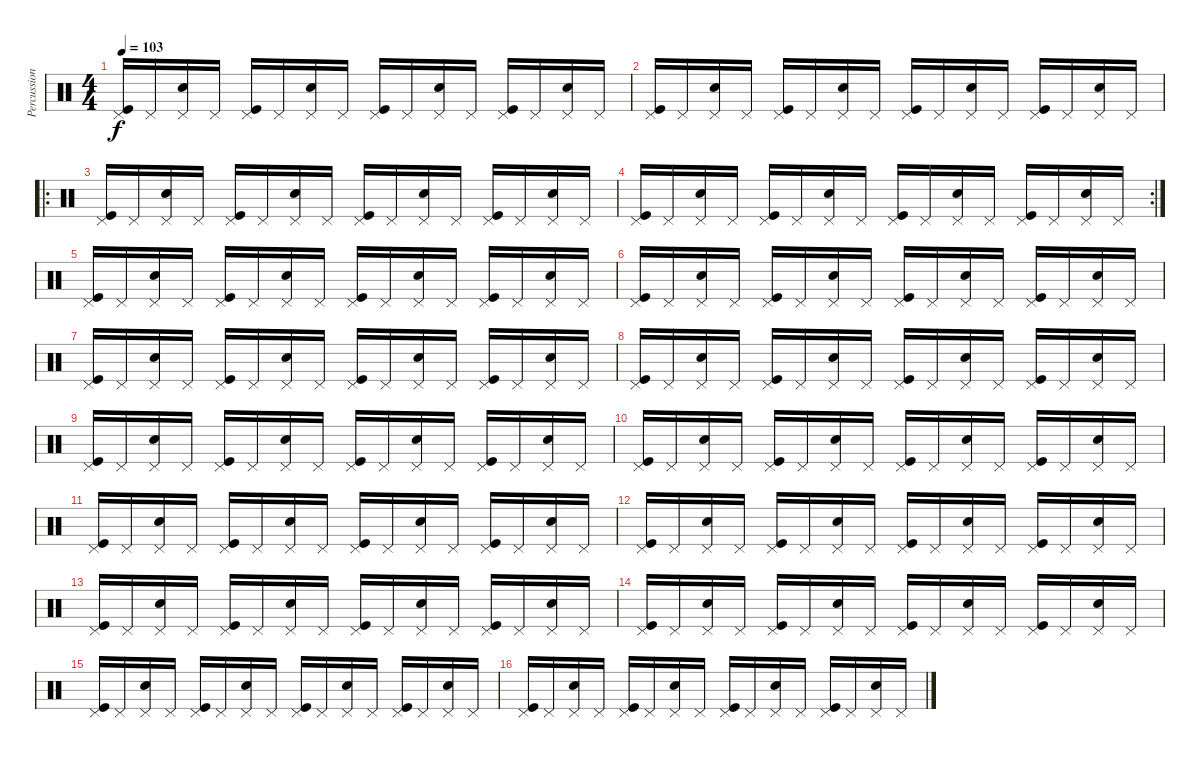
\track ("Percussion" "Percussion") {instrument percussion}
\staff {score}
\articulation defaults
\ts (4 4)
\tempo 103
\clef neutral
\ks c
("Kick (hit)" "Pedal Hi-Hat (hit)").16{dy f} "Pedal Hi-Hat (hit)".16 ("Snare (hit) 2" "Pedal Hi-Hat (hit)").16 "Pedal Hi-Hat (hit)".16 ("Kick (hit)" "Pedal Hi-Hat (hit)").16 "Pedal Hi-Hat (hit)".16 ("Snare (hit) 2" "Pedal Hi-Hat (hit)").16 "Pedal Hi-Hat (hit)".16 ("Kick (hit)" "Pedal Hi-Hat (hit)").16 "Pedal Hi-Hat (hit)".16 ("Snare (hit) 2" "Pedal Hi-Hat (hit)").16 "Pedal Hi-Hat (hit)".16 ("Kick (hit)" "Pedal Hi-Hat (hit)").16 "Pedal Hi-Hat (hit)".16 ("Snare (hit) 2" "Pedal Hi-Hat (hit)").16 "Pedal Hi-Hat (hit)".16 |
("Kick (hit)" "Pedal Hi-Hat (hit)").16 "Pedal Hi-Hat (hit)".16 ("Snare (hit) 2" "Pedal Hi-Hat (hit)").16 "Pedal Hi-Hat (hit)".16 ("Kick (hit)" "Pedal Hi-Hat (hit)").16 "Pedal Hi-Hat (hit)".16 ("Snare (hit) 2" "Pedal Hi-Hat (hit)").16 "Pedal Hi-Hat (hit)".16 ("Kick (hit)" "Pedal Hi-Hat (hit)").16 "Pedal Hi-Hat (hit)".16 ("Snare (hit) 2" "Pedal Hi-Hat (hit)").16 "Pedal Hi-Hat (hit)".16 ("Kick (hit)" "Pedal Hi-Hat (hit)").16 "Pedal Hi-Hat (hit)".16 ("Snare (hit) 2" "Pedal Hi-Hat (hit)").16 "Pedal Hi-Hat (hit)".16 |
\ro
("Kick (hit)" "Pedal Hi-Hat (hit)").16 "Pedal Hi-Hat (hit)".16 ("Snare (hit) 2" "Pedal Hi-Hat (hit)").16 "Pedal Hi-Hat (hit)".16 ("Kick (hit)" "Pedal Hi-Hat (hit)").16 "Pedal Hi-Hat (hit)".16 ("Snare (hit) 2" "Pedal Hi-Hat (hit)").16 "Pedal Hi-Hat (hit)".16 ("Kick (hit)" "Pedal Hi-Hat (hit)").16 "Pedal Hi-Hat (hit)".16 ("Snare (hit) 2" "Pedal Hi-Hat (hit)").16 "Pedal Hi-Hat (hit)".16 ("Kick (hit)" "Pedal Hi-Hat (hit)").16 "Pedal Hi-Hat (hit)".16 ("Snare (hit) 2" "Pedal Hi-Hat (hit)").16 "Pedal Hi-Hat (hit)".16 |
\rc 2
("Kick (hit)" "Pedal Hi-Hat (hit)").16 "Pedal Hi-Hat (hit)".16 ("Snare (hit) 2" "Pedal Hi-Hat (hit)").16 "Pedal Hi-Hat (hit)".16 ("Kick (hit)" "Pedal Hi-Hat (hit)").16 "Pedal Hi-Hat (hit)".16 ("Snare (hit) 2" "Pedal Hi-Hat (hit)").16 "Pedal Hi-Hat (hit)".16 ("Kick (hit)" "Pedal Hi-Hat (hit)").16 "Pedal Hi-Hat (hit)".16 ("Snare (hit) 2" "Pedal Hi-Hat (hit)").16 "Pedal Hi-Hat (hit)".16 ("Kick (hit)" "Pedal Hi-Hat (hit)").16 "Pedal Hi-Hat (hit)".16 ("Snare (hit) 2" "Pedal Hi-Hat (hit)").16 "Pedal Hi-Hat (hit)".16 |
("Kick (hit)" "Pedal Hi-Hat (hit)").16 "Pedal Hi-Hat (hit)".16 ("Snare (hit) 2" "Pedal Hi-Hat (hit)").16 "Pedal Hi-Hat (hit)".16 ("Kick (hit)" "Pedal Hi-Hat (hit)").16 "Pedal Hi-Hat (hit)".16 ("Snare (hit) 2" "Pedal Hi-Hat (hit)").16 "Pedal Hi-Hat (hit)".16 ("Kick (hit)" "Pedal Hi-Hat (hit)").16 "Pedal Hi-Hat (hit)".16 ("Snare (hit) 2" "Pedal Hi-Hat (hit)").16 "Pedal Hi-Hat (hit)".16 ("Kick (hit)" "Pedal Hi-Hat (hit)").16 "Pedal Hi-Hat (hit)".16 ("Snare (hit) 2" "Pedal Hi-Hat (hit)").16 "Pedal Hi-Hat (hit)".16 |
("Kick (hit)" "Pedal Hi-Hat (hit)").16 "Pedal Hi-Hat (hit)".16 ("Snare (hit) 2" "Pedal Hi-Hat (hit)").16 "Pedal Hi-Hat (hit)".16 ("Kick (hit)" "Pedal Hi-Hat (hit)").16 "Pedal Hi-Hat (hit)".16 ("Snare (hit) 2" "Pedal Hi-Hat (hit)").16 "Pedal Hi-Hat (hit)".16 ("Kick (hit)" "Pedal Hi-Hat (hit)").16 "Pedal Hi-Hat (hit)".16 ("Snare (hit) 2" "Pedal Hi-Hat (hit)").16 "Pedal Hi-Hat (hit)".16 ("Kick (hit)" "Pedal Hi-Hat (hit)").16 "Pedal Hi-Hat (hit)".16 ("Snare (hit) 2" "Pedal Hi-Hat (hit)").16 "Pedal Hi-Hat (hit)".16 |
("Kick (hit)" "Pedal Hi-Hat (hit)").16 "Pedal Hi-Hat (hit)".16 ("Snare (hit) 2" "Pedal Hi-Hat (hit)").16 "Pedal Hi-Hat (hit)".16 ("Kick (hit)" "Pedal Hi-Hat (hit)").16 "Pedal Hi-Hat (hit)".16 ("Snare (hit) 2" "Pedal Hi-Hat (hit)").16 "Pedal Hi-Hat (hit)".16 ("Kick (hit)" "Pedal Hi-Hat (hit)").16 "Pedal Hi-Hat (hit)".16 ("Snare (hit) 2" "Pedal Hi-Hat (hit)").16 "Pedal Hi-Hat (hit)".16 ("Kick (hit)" "Pedal Hi-Hat (hit)").16 "Pedal Hi-Hat (hit)".16 ("Snare (hit) 2" "Pedal Hi-Hat (hit)").16 "Pedal Hi-Hat (hit)".16 |
("Kick (hit)" "Pedal Hi-Hat (hit)").16 "Pedal Hi-Hat (hit)".16 ("Snare (hit) 2" "Pedal Hi-Hat (hit)").16 "Pedal Hi-Hat (hit)".16 ("Kick (hit)" "Pedal Hi-Hat (hit)").16 "Pedal Hi-Hat (hit)".16 ("Snare (hit) 2" "Pedal Hi-Hat (hit)").16 "Pedal Hi-Hat (hit)".16 ("Kick (hit)" "Pedal Hi-Hat (hit)").16 "Pedal Hi-Hat (hit)".16 ("Snare (hit) 2" "Pedal Hi-Hat (hit)").16 "Pedal Hi-Hat (hit)".16 ("Kick (hit)" "Pedal Hi-Hat (hit)").16 "Pedal Hi-Hat (hit)".16 ("Snare (hit) 2" "Pedal Hi-Hat (hit)").16 "Pedal Hi-Hat (hit)".16 |
("Kick (hit)" "Pedal Hi-Hat (hit)").16 "Pedal Hi-Hat (hit)".16 ("Snare (hit) 2" "Pedal Hi-Hat (hit)").16 "Pedal Hi-Hat (hit)".16 ("Kick (hit)" "Pedal Hi-Hat (hit)").16 "Pedal Hi-Hat (hit)".16 ("Snare (hit) 2" "Pedal Hi-Hat (hit)").16 "Pedal Hi-Hat (hit)".16 ("Kick (hit)" "Pedal Hi-Hat (hit)").16 "Pedal Hi-Hat (hit)".16 ("Snare (hit) 2" "Pedal Hi-Hat (hit)").16 "Pedal Hi-Hat (hit)".16 ("Kick (hit)" "Pedal Hi-Hat (hit)").16 "Pedal Hi-Hat (hit)".16 ("Snare (hit) 2" "Pedal Hi-Hat (hit)").16 "Pedal Hi-Hat (hit)".16 |
("Kick (hit)" "Pedal Hi-Hat (hit)").16 "Pedal Hi-Hat (hit)".16 ("Snare (hit) 2" "Pedal Hi-Hat (hit)").16 "Pedal Hi-Hat (hit)".16 ("Kick (hit)" "Pedal Hi-Hat (hit)").16 "Pedal Hi-Hat (hit)".16 ("Snare (hit) 2" "Pedal Hi-Hat (hit)").16 "Pedal Hi-Hat (hit)".16 ("Kick (hit)" "Pedal Hi-Hat (hit)").16 "Pedal Hi-Hat (hit)".16 ("Snare (hit) 2" "Pedal Hi-Hat (hit)").16 "Pedal Hi-Hat (hit)".16 ("Kick (hit)" "Pedal Hi-Hat (hit)").16 "Pedal Hi-Hat (hit)".16 ("Snare (hit) 2" "Pedal Hi-Hat (hit)").16 "Pedal Hi-Hat (hit)".16 |
("Kick (hit)" "Pedal Hi-Hat (hit)").16 "Pedal Hi-Hat (hit)".16 ("Snare (hit) 2" "Pedal Hi-Hat (hit)").16 "Pedal Hi-Hat (hit)".16 ("Kick (hit)" "Pedal Hi-Hat (hit)").16 "Pedal Hi-Hat (hit)".16 ("Snare (hit) 2" "Pedal Hi-Hat (hit)").16 "Pedal Hi-Hat (hit)".16 ("Kick (hit)" "Pedal Hi-Hat (hit)").16 "Pedal Hi-Hat (hit)".16 ("Snare (hit) 2" "Pedal Hi-Hat (hit)").16 "Pedal Hi-Hat (hit)".16 ("Kick (hit)" "Pedal Hi-Hat (hit)").16 "Pedal Hi-Hat (hit)".16 ("Snare (hit) 2" "Pedal Hi-Hat (hit)").16 "Pedal Hi-Hat (hit)".16 |
("Kick (hit)" "Pedal Hi-Hat (hit)").16 "Pedal Hi-Hat (hit)".16 ("Snare (hit) 2" "Pedal Hi-Hat (hit)").16 "Pedal Hi-Hat (hit)".16 ("Kick (hit)" "Pedal Hi-Hat (hit)").16 "Pedal Hi-Hat (hit)".16 ("Snare (hit) 2" "Pedal Hi-Hat (hit)").16 "Pedal Hi-Hat (hit)".16 ("Kick (hit)" "Pedal Hi-Hat (hit)").16 "Pedal Hi-Hat (hit)".16 ("Snare (hit) 2" "Pedal Hi-Hat (hit)").16 "Pedal Hi-Hat (hit)".16 ("Kick (hit)" "Pedal Hi-Hat (hit)").16 "Pedal Hi-Hat (hit)".16 ("Snare (hit) 2" "Pedal Hi-Hat (hit)").16 "Pedal Hi-Hat (hit)".16 |
("Kick (hit)" "Pedal Hi-Hat (hit)").16 "Pedal Hi-Hat (hit)".16 ("Snare (hit) 2" "Pedal Hi-Hat (hit)").16 "Pedal Hi-Hat (hit)".16 ("Kick (hit)" "Pedal Hi-Hat (hit)").16 "Pedal Hi-Hat (hit)".16 ("Snare (hit) 2" "Pedal Hi-Hat (hit)").16 "Pedal Hi-Hat (hit)".16 ("Kick (hit)" "Pedal Hi-Hat (hit)").16 "Pedal Hi-Hat (hit)".16 ("Snare (hit) 2" "Pedal Hi-Hat (hit)").16 "Pedal Hi-Hat (hit)".16 ("Kick (hit)" "Pedal Hi-Hat (hit)").16 "Pedal Hi-Hat (hit)".16 ("Snare (hit) 2" "Pedal Hi-Hat (hit)").16 "Pedal Hi-Hat (hit)".16 |
("Kick (hit)" "Pedal Hi-Hat (hit)").16 "Pedal Hi-Hat (hit)".16 ("Snare (hit) 2" "Pedal Hi-Hat (hit)").16 "Pedal Hi-Hat (hit)".16 ("Kick (hit)" "Pedal Hi-Hat (hit)").16 "Pedal Hi-Hat (hit)".16 ("Snare (hit) 2" "Pedal Hi-Hat (hit)").16 "Pedal Hi-Hat (hit)".16 ("Kick (hit)" "Pedal Hi-Hat (hit)").16 "Pedal Hi-Hat (hit)".16 ("Snare (hit) 2" "Pedal Hi-Hat (hit)").16 "Pedal Hi-Hat (hit)".16 ("Kick (hit)" "Pedal Hi-Hat (hit)").16 "Pedal Hi-Hat (hit)".16 ("Snare (hit) 2" "Pedal Hi-Hat (hit)").16 "Pedal Hi-Hat (hit)".16 |
("Kick (hit)" "Pedal Hi-Hat (hit)").16 "Pedal Hi-Hat (hit)".16 ("Snare (hit) 2" "Pedal Hi-Hat (hit)").16 "Pedal Hi-Hat (hit)".16 ("Kick (hit)" "Pedal Hi-Hat (hit)").16 "Pedal Hi-Hat (hit)".16 ("Snare (hit) 2" "Pedal Hi-Hat (hit)").16 "Pedal Hi-Hat (hit)".16 ("Kick (hit)" "Pedal Hi-Hat (hit)").16 "Pedal Hi-Hat (hit)".16 ("Snare (hit) 2" "Pedal Hi-Hat (hit)").16 "Pedal Hi-Hat (hit)".16 ("Kick (hit)" "Pedal Hi-Hat (hit)").16 "Pedal Hi-Hat (hit)".16 ("Snare (hit) 2" "Pedal Hi-Hat (hit)").16 "Pedal Hi-Hat (hit)".16 |
("Kick (hit)" "Pedal Hi-Hat (hit)").16 "Pedal Hi-Hat (hit)".16 ("Snare (hit) 2" "Pedal Hi-Hat (hit)").16 "Pedal Hi-Hat (hit)".16 ("Kick (hit)" "Pedal Hi-Hat (hit)").16 "Pedal Hi-Hat (hit)".16 ("Snare (hit) 2" "Pedal Hi-Hat (hit)").16 "Pedal Hi-Hat (hit)".16 ("Kick (hit)" "Pedal Hi-Hat (hit)").16 "Pedal Hi-Hat (hit)".16 ("Snare (hit) 2" "Pedal Hi-Hat (hit)").16 "Pedal Hi-Hat (hit)".16 ("Kick (hit)" "Pedal Hi-Hat (hit)").16 "Pedal Hi-Hat (hit)".16 ("Snare (hit) 2" "Pedal Hi-Hat (hit)").16 "Pedal Hi-Hat (hit)".16
